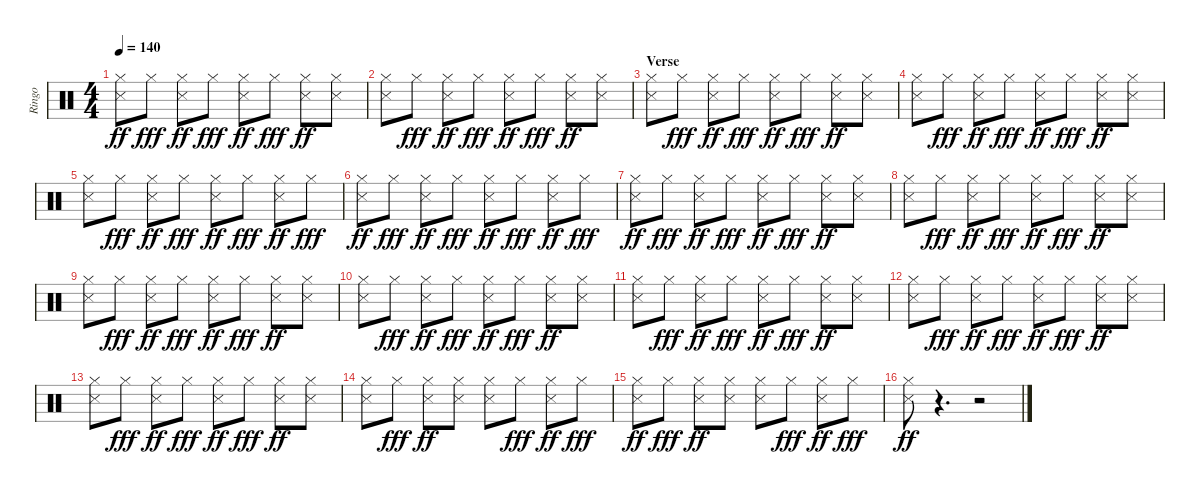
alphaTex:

\track ("Ringo" "Ringo") {instrument percussion}
\staff {score}
\articulation defaults
\ts (4 4)
\tempo 140
\clef neutral
\ks c
("Hi-Hat (closed)" "Snare (side stick) 3").8{dy ff} "Hi-Hat (closed)".8{dy fff} ("Hi-Hat (closed)" "Snare (side stick) 3").8{dy ff} "Hi-Hat (closed)".8{dy fff} ("Hi-Hat (closed)" "Snare (side stick) 3").8{dy ff} "Hi-Hat (closed)".8{dy fff} ("Hi-Hat (closed)" "Snare (side stick) 3").8{dy ff} ("Hi-Hat (closed)" "Snare (side stick) 3").8 |
("Hi-Hat (closed)" "Snare (side stick) 3").8 "Hi-Hat (closed)".8{dy fff} ("Hi-Hat (closed)" "Snare (side stick) 3").8{dy ff} "Hi-Hat (closed)".8{dy fff} ("Hi-Hat (closed)" "Snare (side stick) 3").8{dy ff} "Hi-Hat (closed)".8{dy fff} ("Hi-Hat (closed)" "Snare (side stick) 3").8{dy ff} ("Hi-Hat (closed)" "Snare (side stick) 3").8 |
\section ("" "Verse")
("Hi-Hat (closed)" "Snare (side stick) 3").8 "Hi-Hat (closed)".8{dy fff} ("Hi-Hat (closed)" "Snare (side stick) 3").8{dy ff} "Hi-Hat (closed)".8{dy fff} ("Hi-Hat (closed)" "Snare (side stick) 3").8{dy ff} "Hi-Hat (closed)".8{dy fff} ("Hi-Hat (closed)" "Snare (side stick) 3").8{dy ff} ("Hi-Hat (closed)" "Snare (side stick) 3").8 |
("Hi-Hat (closed)" "Snare (side stick) 3").8 "Hi-Hat (closed)".8{dy fff} ("Hi-Hat (closed)" "Snare (side stick) 3").8{dy ff} "Hi-Hat (closed)".8{dy fff} ("Hi-Hat (closed)" "Snare (side stick) 3").8{dy ff} "Hi-Hat (closed)".8{dy fff} ("Hi-Hat (closed)" "Snare (side stick) 3").8{dy ff} ("Hi-Hat (closed)" "Snare (side stick) 3").8 |
("Hi-Hat (closed)" "Snare (side stick) 3").8 "Hi-Hat (closed)".8{dy fff} ("Hi-Hat (closed)" "Snare (side stick) 3").8{dy ff} "Hi-Hat (closed)".8{dy fff} ("Hi-Hat (closed)" "Snare (side stick) 3").8{dy ff} "Hi-Hat (closed)".8{dy fff} ("Hi-Hat (closed)" "Snare (side stick) 3").8{dy ff} "Hi-Hat (closed)".8{dy fff} |
("Hi-Hat (closed)" "Snare (side stick) 3").8{dy ff} "Hi-Hat (closed)".8{dy fff} ("Hi-Hat (closed)" "Snare (side stick) 3").8{dy ff} "Hi-Hat (closed)".8{dy fff} ("Hi-Hat (closed)" "Snare (side stick) 3").8{dy ff} "Hi-Hat (closed)".8{dy fff} ("Hi-Hat (closed)" "Snare (side stick) 3").8{dy ff} "Hi-Hat (closed)".8{dy fff} |
("Hi-Hat (closed)" "Snare (side stick) 3").8{dy ff} "Hi-Hat (closed)".8{dy fff} ("Hi-Hat (closed)" "Snare (side stick) 3").8{dy ff} "Hi-Hat (closed)".8{dy fff} ("Hi-Hat (closed)" "Snare (side stick) 3").8{dy ff} "Hi-Hat (closed)".8{dy fff} ("Hi-Hat (closed)" "Snare (side stick) 3").8{dy ff} ("Hi-Hat (closed)" "Snare (side stick) 3").8 |
("Hi-Hat (closed)" "Snare (side stick) 3").8 "Hi-Hat (closed)".8{dy fff} ("Hi-Hat (closed)" "Snare (side stick) 3").8{dy ff} "Hi-Hat (closed)".8{dy fff} ("Hi-Hat (closed)" "Snare (side stick) 3").8{dy ff} "Hi-Hat (closed)".8{dy fff} ("Hi-Hat (closed)" "Snare (side stick) 3").8{dy ff} ("Hi-Hat (closed)" "Snare (side stick) 3").8 |
("Hi-Hat (closed)" "Snare (side stick) 3").8 "Hi-Hat (closed)".8{dy fff} ("Hi-Hat (closed)" "Snare (side stick) 3").8{dy ff} "Hi-Hat (closed)".8{dy fff} ("Hi-Hat (closed)" "Snare (side stick) 3").8{dy ff} "Hi-Hat (closed)".8{dy fff} ("Hi-Hat (closed)" "Snare (side stick) 3").8{dy ff} ("Hi-Hat (closed)" "Snare (side stick) 3").8 |
("Hi-Hat (closed)" "Snare (side stick) 3").8 "Hi-Hat (closed)".8{dy fff} ("Hi-Hat (closed)" "Snare (side stick) 3").8{dy ff} "Hi-Hat (closed)".8{dy fff} ("Hi-Hat (closed)" "Snare (side stick) 3").8{dy ff} "Hi-Hat (closed)".8{dy fff} ("Hi-Hat (closed)" "Snare (side stick) 3").8{dy ff} ("Hi-Hat (closed)" "Snare (side stick) 3").8 |
("Hi-Hat (closed)" "Snare (side stick) 3").8 "Hi-Hat (closed)".8{dy fff} ("Hi-Hat (closed)" "Snare (side stick) 3").8{dy ff} "Hi-Hat (closed)".8{dy fff} ("Hi-Hat (closed)" "Snare (side stick) 3").8{dy ff} "Hi-Hat (closed)".8{dy fff} ("Hi-Hat (closed)" "Snare (side stick) 3").8{dy ff} ("Hi-Hat (closed)" "Snare (side stick) 3").8 |
("Hi-Hat (closed)" "Snare (side stick) 3").8 "Hi-Hat (closed)".8{dy fff} ("Hi-Hat (closed)" "Snare (side stick) 3").8{dy ff} "Hi-Hat (closed)".8{dy fff} ("Hi-Hat (closed)" "Snare (side stick) 3").8{dy ff} "Hi-Hat (closed)".8{dy fff} ("Hi-Hat (closed)" "Snare (side stick) 3").8{dy ff} ("Hi-Hat (closed)" "Snare (side stick) 3").8 |
("Hi-Hat (closed)" "Snare (side stick) 3").8 "Hi-Hat (closed)".8{dy fff} ("Hi-Hat (closed)" "Snare (side stick) 3").8{dy ff} "Hi-Hat (closed)".8{dy fff} ("Hi-Hat (closed)" "Snare (side stick) 3").8{dy ff} "Hi-Hat (closed)".8{dy fff} ("Hi-Hat (closed)" "Snare (side stick) 3").8{dy ff} ("Hi-Hat (closed)" "Snare (side stick) 3").8 |
("Hi-Hat (closed)" "Snare (side stick) 3").8 "Hi-Hat (closed)".8{dy fff} ("Hi-Hat (closed)" "Snare (side stick) 3").8{dy ff} ("Hi-Hat (closed)" "Snare (side stick) 3").8 ("Hi-Hat (closed)" "Snare (side stick) 3").8 "Hi-Hat (closed)".8{dy fff} ("Hi-Hat (closed)" "Snare (side stick) 3").8{dy ff} "Hi-Hat (closed)".8{dy fff} |
("Hi-Hat (closed)" "Snare (side stick) 3").8{dy ff} "Hi-Hat (closed)".8{dy fff} ("Hi-Hat (closed)" "Snare (side stick) 3").8{dy ff} ("Hi-Hat (closed)" "Snare (side stick) 3").8 ("Hi-Hat (closed)" "Snare (side stick) 3").8 "Hi-Hat (closed)".8{dy fff} ("Hi-Hat (closed)" "Snare (side stick) 3").8{dy ff} "Hi-Hat (closed)".8{dy fff} |
("Hi-Hat (closed)" "Snare (side stick) 3").8{dy ff} r.4{d} r.2
